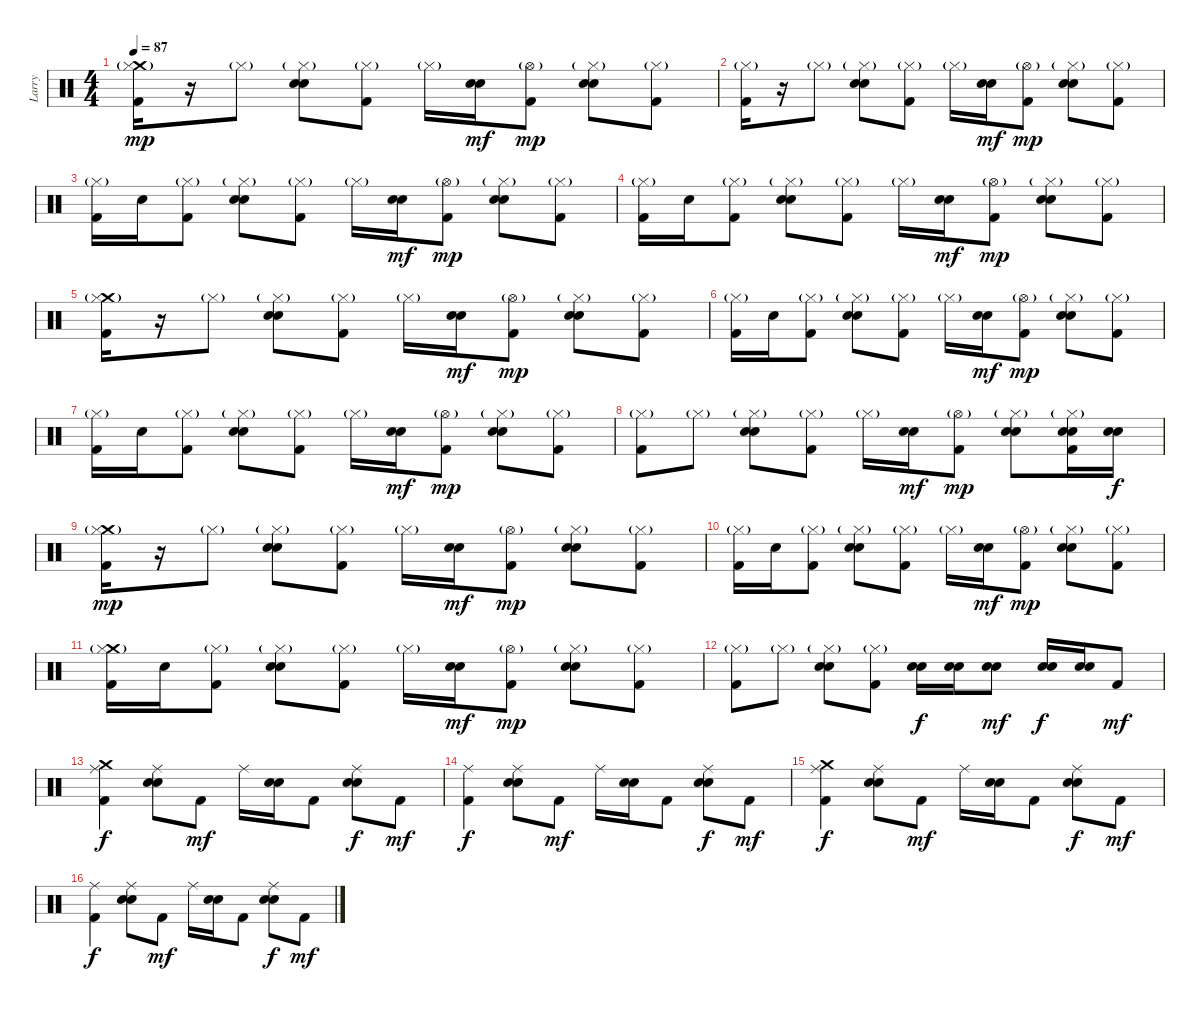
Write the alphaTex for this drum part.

\track ("Larry" "Larry") {instrument percussion}
\staff {score}
\articulation defaults
\ts (4 4)
\tempo 87
\clef neutral
\ks c
("Crash medium (hit)" "Kick (hit) 2" "Hi-Hat (closed)"{g}).16{dy mp} r.16 "Hi-Hat (closed)"{g}.8 ("Snare (hit) 2" "Electric Snare (hit)" "Hi-Hat (closed)"{g}).8 ("Kick (hit) 2" "Hi-Hat (closed)"{g}).8 "Hi-Hat (closed)"{g}.16 ("Snare (hit) 2" "Electric Snare (hit)").16{dy mf} ("Kick (hit) 2" "Hi-Hat (open)"{g}).8{dy mp} ("Snare (hit) 2" "Electric Snare (hit)" "Hi-Hat (closed)"{g}).8 ("Kick (hit) 2" "Hi-Hat (closed)"{g}).8 |
("Kick (hit) 2" "Hi-Hat (closed)"{g}).16 r.16 "Hi-Hat (closed)"{g}.8 ("Snare (hit) 2" "Electric Snare (hit)" "Hi-Hat (closed)"{g}).8 ("Kick (hit) 2" "Hi-Hat (closed)"{g}).8 "Hi-Hat (closed)"{g}.16 ("Snare (hit) 2" "Electric Snare (hit)").16{dy mf} ("Kick (hit) 2" "Hi-Hat (open)"{g}).8{dy mp} ("Snare (hit) 2" "Electric Snare (hit)" "Hi-Hat (closed)"{g}).8 ("Kick (hit) 2" "Hi-Hat (closed)"{g}).8 |
("Kick (hit) 2" "Hi-Hat (closed)"{g}).16 "Electric Snare (hit)".16 ("Kick (hit) 2" "Hi-Hat (closed)"{g}).8 ("Snare (hit) 2" "Electric Snare (hit)" "Hi-Hat (closed)"{g}).8 ("Kick (hit) 2" "Hi-Hat (closed)"{g}).8 "Hi-Hat (closed)"{g}.16 ("Snare (hit) 2" "Electric Snare (hit)").16{dy mf} ("Kick (hit) 2" "Hi-Hat (open)"{g}).8{dy mp} ("Snare (hit) 2" "Electric Snare (hit)" "Hi-Hat (closed)"{g}).8 ("Kick (hit) 2" "Hi-Hat (closed)"{g}).8 |
("Kick (hit) 2" "Hi-Hat (closed)"{g}).16 "Electric Snare (hit)".16 ("Kick (hit) 2" "Hi-Hat (closed)"{g}).8 ("Snare (hit) 2" "Electric Snare (hit)" "Hi-Hat (closed)"{g}).8 ("Kick (hit) 2" "Hi-Hat (closed)"{g}).8 "Hi-Hat (closed)"{g}.16 ("Snare (hit) 2" "Electric Snare (hit)").16{dy mf} ("Kick (hit) 2" "Hi-Hat (open)"{g}).8{dy mp} ("Snare (hit) 2" "Electric Snare (hit)" "Hi-Hat (closed)"{g}).8 ("Kick (hit) 2" "Hi-Hat (closed)"{g}).8 |
("Crash medium (hit)" "Kick (hit) 2" "Hi-Hat (closed)"{g}).16 r.16 "Hi-Hat (closed)"{g}.8 ("Snare (hit) 2" "Electric Snare (hit)" "Hi-Hat (closed)"{g}).8 ("Kick (hit) 2" "Hi-Hat (closed)"{g}).8 "Hi-Hat (closed)"{g}.16 ("Snare (hit) 2" "Electric Snare (hit)").16{dy mf} ("Kick (hit) 2" "Hi-Hat (open)"{g}).8{dy mp} ("Snare (hit) 2" "Electric Snare (hit)" "Hi-Hat (closed)"{g}).8 ("Kick (hit) 2" "Hi-Hat (closed)"{g}).8 |
("Kick (hit) 2" "Hi-Hat (closed)"{g}).16 "Electric Snare (hit)".16 ("Kick (hit) 2" "Hi-Hat (closed)"{g}).8 ("Snare (hit) 2" "Electric Snare (hit)" "Hi-Hat (closed)"{g}).8 ("Kick (hit) 2" "Hi-Hat (closed)"{g}).8 "Hi-Hat (closed)"{g}.16 ("Snare (hit) 2" "Electric Snare (hit)").16{dy mf} ("Kick (hit) 2" "Hi-Hat (open)"{g}).8{dy mp} ("Snare (hit) 2" "Electric Snare (hit)" "Hi-Hat (closed)"{g}).8 ("Kick (hit) 2" "Hi-Hat (closed)"{g}).8 |
("Kick (hit) 2" "Hi-Hat (closed)"{g}).16 "Electric Snare (hit)".16 ("Kick (hit) 2" "Hi-Hat (closed)"{g}).8 ("Snare (hit) 2" "Electric Snare (hit)" "Hi-Hat (closed)"{g}).8 ("Kick (hit) 2" "Hi-Hat (closed)"{g}).8 "Hi-Hat (closed)"{g}.16 ("Snare (hit) 2" "Electric Snare (hit)").16{dy mf} ("Kick (hit) 2" "Hi-Hat (open)"{g}).8{dy mp} ("Snare (hit) 2" "Electric Snare (hit)" "Hi-Hat (closed)"{g}).8 ("Kick (hit) 2" "Hi-Hat (closed)"{g}).8 |
("Kick (hit) 2" "Hi-Hat (closed)"{g}).8 "Hi-Hat (closed)"{g}.8 ("Snare (hit) 2" "Electric Snare (hit)" "Hi-Hat (closed)"{g}).8 ("Kick (hit) 2" "Hi-Hat (closed)"{g}).8 "Hi-Hat (closed)"{g}.16 ("Snare (hit) 2" "Electric Snare (hit)").16{dy mf} ("Kick (hit) 2" "Hi-Hat (open)"{g}).8{dy mp} ("Snare (hit) 2" "Electric Snare (hit)" "Hi-Hat (closed)"{g}).8 ("Snare (hit) 2" "Electric Snare (hit)" "Kick (hit) 2" "Hi-Hat (closed)"{g}).16 ("Snare (hit) 2" "Electric Snare (hit)").16{dy f} |
("Crash medium (hit)" "Kick (hit) 2" "Hi-Hat (closed)"{g}).16{dy mp} r.16 "Hi-Hat (closed)"{g}.8 ("Snare (hit) 2" "Electric Snare (hit)" "Hi-Hat (closed)"{g}).8 ("Kick (hit) 2" "Hi-Hat (closed)"{g}).8 "Hi-Hat (closed)"{g}.16 ("Snare (hit) 2" "Electric Snare (hit)").16{dy mf} ("Kick (hit) 2" "Hi-Hat (open)"{g}).8{dy mp} ("Snare (hit) 2" "Electric Snare (hit)" "Hi-Hat (closed)"{g}).8 ("Kick (hit) 2" "Hi-Hat (closed)"{g}).8 |
("Kick (hit) 2" "Hi-Hat (closed)"{g}).16 "Electric Snare (hit)".16 ("Kick (hit) 2" "Hi-Hat (closed)"{g}).8 ("Snare (hit) 2" "Electric Snare (hit)" "Hi-Hat (closed)"{g}).8 ("Kick (hit) 2" "Hi-Hat (closed)"{g}).8 "Hi-Hat (closed)"{g}.16 ("Snare (hit) 2" "Electric Snare (hit)").16{dy mf} ("Kick (hit) 2" "Hi-Hat (open)"{g}).8{dy mp} ("Snare (hit) 2" "Electric Snare (hit)" "Hi-Hat (closed)"{g}).8 ("Kick (hit) 2" "Hi-Hat (closed)"{g}).8 |
("Crash medium (hit)" "Kick (hit) 2" "Hi-Hat (closed)"{g}).16 "Electric Snare (hit)".16 ("Kick (hit) 2" "Hi-Hat (closed)"{g}).8 ("Snare (hit) 2" "Electric Snare (hit)" "Hi-Hat (closed)"{g}).8 ("Kick (hit) 2" "Hi-Hat (closed)"{g}).8 "Hi-Hat (closed)"{g}.16 ("Snare (hit) 2" "Electric Snare (hit)").16{dy mf} ("Kick (hit) 2" "Hi-Hat (open)"{g}).8{dy mp} ("Snare (hit) 2" "Electric Snare (hit)" "Hi-Hat (closed)"{g}).8 ("Kick (hit) 2" "Hi-Hat (closed)"{g}).8 |
("Kick (hit) 2" "Hi-Hat (closed)"{g}).8 "Hi-Hat (closed)"{g}.8 ("Snare (hit) 2" "Electric Snare (hit)" "Hi-Hat (closed)"{g}).8 ("Kick (hit) 2" "Hi-Hat (closed)"{g}).8 ("Snare (hit) 2" "Electric Snare (hit)").16{dy f} ("Snare (hit) 2" "Electric Snare (hit)").16 ("Snare (hit) 2" "Electric Snare (hit)").8{dy mf} ("Snare (hit) 2" "Electric Snare (hit)").16{dy f} ("Snare (hit) 2" "Electric Snare (hit)").16 "Kick (hit) 2".8{dy mf} |
("Crash medium (hit)" "Kick (hit) 2" "Ride (middle)").4{dy f} ("Snare (hit) 2" "Electric Snare (hit)" "Ride (middle)").8 "Kick (hit) 2".8{dy mf} "Ride (middle)".16 ("Snare (hit) 2" "Electric Snare (hit)").16 "Kick (hit) 2".8 ("Snare (hit) 2" "Electric Snare (hit)" "Ride (middle)").8{dy f} "Kick (hit) 2".8{dy mf} |
("Kick (hit) 2" "Ride (middle)").4{dy f} ("Snare (hit) 2" "Electric Snare (hit)" "Ride (middle)").8 "Kick (hit) 2".8{dy mf} "Ride (middle)".16 ("Snare (hit) 2" "Electric Snare (hit)").16 "Kick (hit) 2".8 ("Snare (hit) 2" "Electric Snare (hit)" "Ride (middle)").8{dy f} "Kick (hit) 2".8{dy mf} |
("Crash medium (hit)" "Kick (hit) 2" "Ride (middle)").4{dy f} ("Snare (hit) 2" "Electric Snare (hit)" "Ride (middle)").8 "Kick (hit) 2".8{dy mf} "Ride (middle)".16 ("Snare (hit) 2" "Electric Snare (hit)").16 "Kick (hit) 2".8 ("Snare (hit) 2" "Electric Snare (hit)" "Ride (middle)").8{dy f} "Kick (hit) 2".8{dy mf} |
("Kick (hit) 2" "Ride (middle)").4{dy f} ("Snare (hit) 2" "Electric Snare (hit)" "Ride (middle)").8 "Kick (hit) 2".8{dy mf} "Ride (middle)".16 ("Snare (hit) 2" "Electric Snare (hit)").16 "Kick (hit) 2".8 ("Snare (hit) 2" "Electric Snare (hit)" "Ride (middle)").8{dy f} "Kick (hit) 2".8{dy mf}
